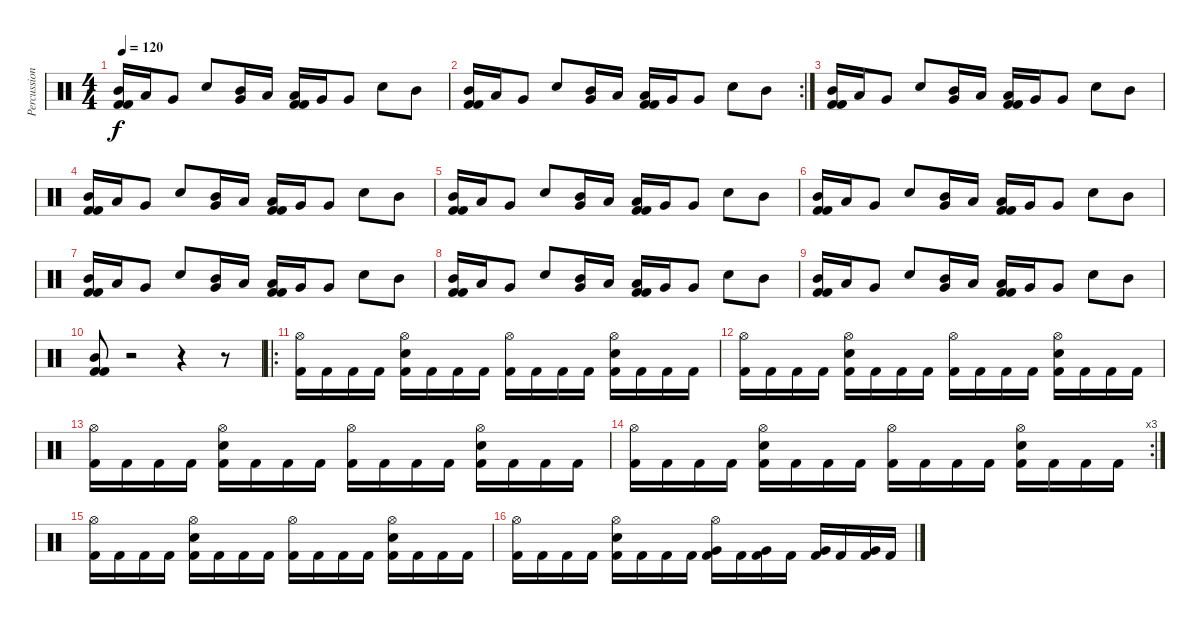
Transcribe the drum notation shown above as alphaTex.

\track ("Percussions" "Percussion") {instrument percussion}
\staff {score}
\articulation defaults
\ts (4 4)
\tempo 120
\clef neutral
\ks c
("Kick (hit) 2" "Mid Tom (hit)" "Kick (hit) 2").16{dy f} "Low Tom (hit)".16 "Very Low Tom (hit)".8 "Snare (hit) 2".8 ("Mid Tom (hit)" "Very Low Tom (hit)").16 "Low Tom (hit)".16 ("Kick (hit) 2" "Low Tom (hit)" "Kick (hit) 2").16 "Very Low Tom (hit)".16 "Very Low Tom (hit)".8 "Snare (hit) 2".8 "Mid Tom (hit)".8 |
\rc 2
("Kick (hit) 2" "Mid Tom (hit)" "Kick (hit) 2").16 "Low Tom (hit)".16 "Very Low Tom (hit)".8 "Snare (hit) 2".8 ("Mid Tom (hit)" "Very Low Tom (hit)").16 "Low Tom (hit)".16 ("Kick (hit) 2" "Low Tom (hit)" "Kick (hit) 2").16 "Very Low Tom (hit)".16 "Very Low Tom (hit)".8 "Snare (hit) 2".8 "Mid Tom (hit)".8 |
("Kick (hit) 2" "Mid Tom (hit)" "Kick (hit) 2").16 "Low Tom (hit)".16 "Very Low Tom (hit)".8 "Snare (hit) 2".8 ("Mid Tom (hit)" "Very Low Tom (hit)").16 "Low Tom (hit)".16 ("Kick (hit) 2" "Low Tom (hit)" "Kick (hit) 2").16 "Very Low Tom (hit)".16 "Very Low Tom (hit)".8 "Snare (hit) 2".8 "Mid Tom (hit)".8 |
("Kick (hit) 2" "Mid Tom (hit)" "Kick (hit) 2").16 "Low Tom (hit)".16 "Very Low Tom (hit)".8 "Snare (hit) 2".8 ("Mid Tom (hit)" "Very Low Tom (hit)").16 "Low Tom (hit)".16 ("Kick (hit) 2" "Low Tom (hit)" "Kick (hit) 2").16 "Very Low Tom (hit)".16 "Very Low Tom (hit)".8 "Snare (hit) 2".8 "Mid Tom (hit)".8 |
("Kick (hit) 2" "Mid Tom (hit)" "Kick (hit) 2").16 "Low Tom (hit)".16 "Very Low Tom (hit)".8 "Snare (hit) 2".8 ("Mid Tom (hit)" "Very Low Tom (hit)").16 "Low Tom (hit)".16 ("Kick (hit) 2" "Low Tom (hit)" "Kick (hit) 2").16 "Very Low Tom (hit)".16 "Very Low Tom (hit)".8 "Snare (hit) 2".8 "Mid Tom (hit)".8 |
("Kick (hit) 2" "Mid Tom (hit)" "Kick (hit) 2").16 "Low Tom (hit)".16 "Very Low Tom (hit)".8 "Snare (hit) 2".8 ("Mid Tom (hit)" "Very Low Tom (hit)").16 "Low Tom (hit)".16 ("Kick (hit) 2" "Low Tom (hit)" "Kick (hit) 2").16 "Very Low Tom (hit)".16 "Very Low Tom (hit)".8 "Snare (hit) 2".8 "Mid Tom (hit)".8 |
("Kick (hit) 2" "Mid Tom (hit)" "Kick (hit) 2").16 "Low Tom (hit)".16 "Very Low Tom (hit)".8 "Snare (hit) 2".8 ("Mid Tom (hit)" "Very Low Tom (hit)").16 "Low Tom (hit)".16 ("Kick (hit) 2" "Low Tom (hit)" "Kick (hit) 2").16 "Very Low Tom (hit)".16 "Very Low Tom (hit)".8 "Snare (hit) 2".8 "Mid Tom (hit)".8 |
("Kick (hit) 2" "Mid Tom (hit)" "Kick (hit) 2").16 "Low Tom (hit)".16 "Very Low Tom (hit)".8 "Snare (hit) 2".8 ("Mid Tom (hit)" "Very Low Tom (hit)").16 "Low Tom (hit)".16 ("Kick (hit) 2" "Low Tom (hit)" "Kick (hit) 2").16 "Very Low Tom (hit)".16 "Very Low Tom (hit)".8 "Snare (hit) 2".8 "Mid Tom (hit)".8 |
("Kick (hit) 2" "Mid Tom (hit)" "Kick (hit) 2").16 "Low Tom (hit)".16 "Very Low Tom (hit)".8 "Snare (hit) 2".8 ("Mid Tom (hit)" "Very Low Tom (hit)").16 "Low Tom (hit)".16 ("Kick (hit) 2" "Low Tom (hit)" "Kick (hit) 2").16 "Very Low Tom (hit)".16 "Very Low Tom (hit)".8 "Snare (hit) 2".8 "Mid Tom (hit)".8 |
("Kick (hit) 2" "Mid Tom (hit)" "Kick (hit) 2").8 r.2 r.4 r.8 |
\ro
("Hi-Hat (open)" "Kick (hit) 2").16 "Kick (hit) 2".16 "Kick (hit) 2".16 "Kick (hit) 2".16 ("Hi-Hat (open)" "Snare (hit) 2" "Kick (hit) 2").16 "Kick (hit) 2".16 "Kick (hit) 2".16 "Kick (hit) 2".16 ("Hi-Hat (open)" "Kick (hit) 2").16 "Kick (hit) 2".16 "Kick (hit) 2".16 "Kick (hit) 2".16 ("Hi-Hat (open)" "Snare (hit) 2" "Kick (hit) 2").16 "Kick (hit) 2".16 "Kick (hit) 2".16 "Kick (hit) 2".16 |
("Hi-Hat (open)" "Kick (hit) 2").16 "Kick (hit) 2".16 "Kick (hit) 2".16 "Kick (hit) 2".16 ("Hi-Hat (open)" "Snare (hit) 2" "Kick (hit) 2").16 "Kick (hit) 2".16 "Kick (hit) 2".16 "Kick (hit) 2".16 ("Hi-Hat (open)" "Kick (hit) 2").16 "Kick (hit) 2".16 "Kick (hit) 2".16 "Kick (hit) 2".16 ("Hi-Hat (open)" "Snare (hit) 2" "Kick (hit) 2").16 "Kick (hit) 2".16 "Kick (hit) 2".16 "Kick (hit) 2".16 |
("Hi-Hat (open)" "Kick (hit) 2").16 "Kick (hit) 2".16 "Kick (hit) 2".16 "Kick (hit) 2".16 ("Hi-Hat (open)" "Snare (hit) 2" "Kick (hit) 2").16 "Kick (hit) 2".16 "Kick (hit) 2".16 "Kick (hit) 2".16 ("Hi-Hat (open)" "Kick (hit) 2").16 "Kick (hit) 2".16 "Kick (hit) 2".16 "Kick (hit) 2".16 ("Hi-Hat (open)" "Snare (hit) 2" "Kick (hit) 2").16 "Kick (hit) 2".16 "Kick (hit) 2".16 "Kick (hit) 2".16 |
\rc 3
("Hi-Hat (open)" "Kick (hit) 2").16 "Kick (hit) 2".16 "Kick (hit) 2".16 "Kick (hit) 2".16 ("Hi-Hat (open)" "Snare (hit) 2" "Kick (hit) 2").16 "Kick (hit) 2".16 "Kick (hit) 2".16 "Kick (hit) 2".16 ("Hi-Hat (open)" "Kick (hit) 2").16 "Kick (hit) 2".16 "Kick (hit) 2".16 "Kick (hit) 2".16 ("Hi-Hat (open)" "Snare (hit) 2" "Kick (hit) 2").16 "Kick (hit) 2".16 "Kick (hit) 2".16 "Kick (hit) 2".16 |
("Hi-Hat (open)" "Kick (hit) 2").16 "Kick (hit) 2".16 "Kick (hit) 2".16 "Kick (hit) 2".16 ("Hi-Hat (open)" "Snare (hit) 2" "Kick (hit) 2").16 "Kick (hit) 2".16 "Kick (hit) 2".16 "Kick (hit) 2".16 ("Hi-Hat (open)" "Kick (hit) 2").16 "Kick (hit) 2".16 "Kick (hit) 2".16 "Kick (hit) 2".16 ("Hi-Hat (open)" "Snare (hit) 2" "Kick (hit) 2").16 "Kick (hit) 2".16 "Kick (hit) 2".16 "Kick (hit) 2".16 |
("Hi-Hat (open)" "Kick (hit) 2").16 "Kick (hit) 2".16 "Kick (hit) 2".16 "Kick (hit) 2".16 ("Hi-Hat (open)" "Snare (hit) 2" "Kick (hit) 2").16 "Kick (hit) 2".16 "Kick (hit) 2".16 "Kick (hit) 2".16 ("Hi-Hat (open)" "Very Low Tom (hit)" "Kick (hit) 2").16 "Kick (hit) 2".16 ("Very Low Tom (hit)" "Kick (hit) 2").16 "Kick (hit) 2".16 ("Very Low Tom (hit)" "Kick (hit) 2").16 "Kick (hit) 2".16 ("Very Low Tom (hit)" "Kick (hit) 2").16 "Kick (hit) 2".16
